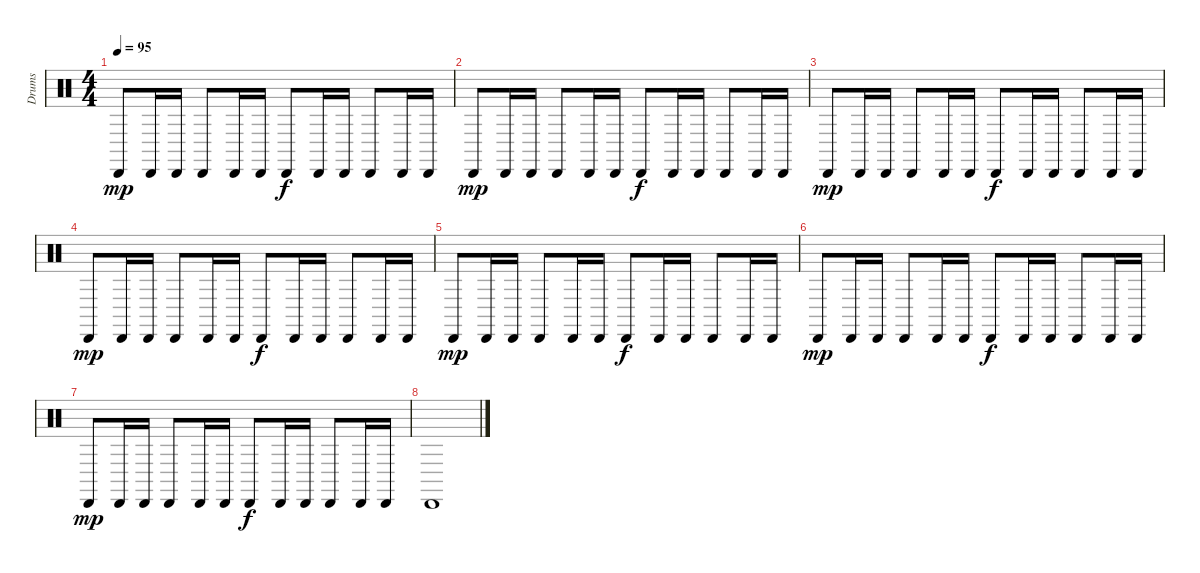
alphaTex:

\track ("Drums" "Drums") {instrument percussion}
\staff {score}
\articulation defaults
\ts (4 4)
\tempo 95
\clef neutral
\ks c "Cabasa (hit)".8{dy mp} "Cabasa (hit)".16 "Cabasa (hit)".16 "Cabasa (hit)".8 "Cabasa (hit)".16 "Cabasa (hit)".16 "Cabasa (hit)".8{dy f} "Cabasa (hit)".16 "Cabasa (hit)".16 "Cabasa (hit)".8 "Cabasa (hit)".16 "Cabasa (hit)".16
|
"Cabasa (hit)".8{dy mp} "Cabasa (hit)".16 "Cabasa (hit)".16 "Cabasa (hit)".8 "Cabasa (hit)".16 "Cabasa (hit)".16 "Cabasa (hit)".8{dy f} "Cabasa (hit)".16 "Cabasa (hit)".16 "Cabasa (hit)".8 "Cabasa (hit)".16 "Cabasa (hit)".16 |
"Cabasa (hit)".8{dy mp} "Cabasa (hit)".16 "Cabasa (hit)".16 "Cabasa (hit)".8 "Cabasa (hit)".16 "Cabasa (hit)".16 "Cabasa (hit)".8{dy f} "Cabasa (hit)".16 "Cabasa (hit)".16 "Cabasa (hit)".8 "Cabasa (hit)".16 "Cabasa (hit)".16 |
"Cabasa (hit)".8{dy mp} "Cabasa (hit)".16 "Cabasa (hit)".16 "Cabasa (hit)".8 "Cabasa (hit)".16 "Cabasa (hit)".16 "Cabasa (hit)".8{dy f} "Cabasa (hit)".16 "Cabasa (hit)".16 "Cabasa (hit)".8 "Cabasa (hit)".16 "Cabasa (hit)".16 |
"Cabasa (hit)".8{dy mp} "Cabasa (hit)".16 "Cabasa (hit)".16 "Cabasa (hit)".8 "Cabasa (hit)".16 "Cabasa (hit)".16 "Cabasa (hit)".8{dy f} "Cabasa (hit)".16 "Cabasa (hit)".16 "Cabasa (hit)".8 "Cabasa (hit)".16 "Cabasa (hit)".16 |
"Cabasa (hit)".8{dy mp} "Cabasa (hit)".16 "Cabasa (hit)".16 "Cabasa (hit)".8 "Cabasa (hit)".16 "Cabasa (hit)".16 "Cabasa (hit)".8{dy f} "Cabasa (hit)".16 "Cabasa (hit)".16 "Cabasa (hit)".8 "Cabasa (hit)".16 "Cabasa (hit)".16 |
"Cabasa (hit)".8{dy mp} "Cabasa (hit)".16 "Cabasa (hit)".16 "Cabasa (hit)".8 "Cabasa (hit)".16 "Cabasa (hit)".16 "Cabasa (hit)".8{dy f} "Cabasa (hit)".16 "Cabasa (hit)".16 "Cabasa (hit)".8 "Cabasa (hit)".16 "Cabasa (hit)".16 |
"Cabasa (hit)".1
